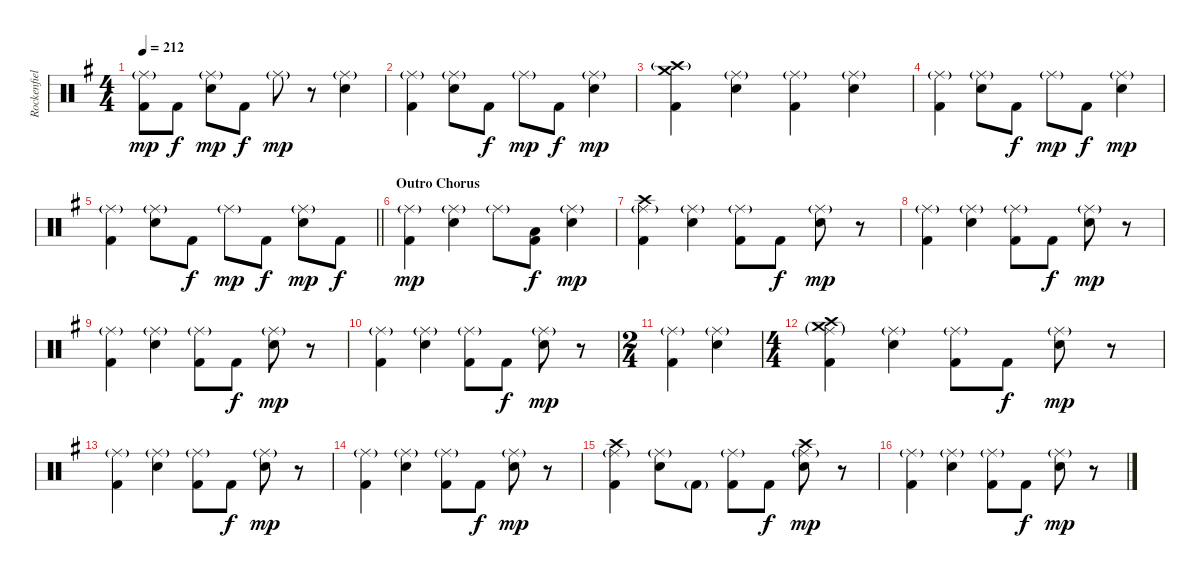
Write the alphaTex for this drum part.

\track ("Rockenfield" "Rockenfiel") {instrument percussion}
\staff {score}
\articulation defaults
\ts (4 4)
\tempo 212
\clef neutral
\ks g
("Ride (middle)"{g} "Kick (hit) 2").8{dy mp} "Kick (hit) 2".8{dy f} ("Ride (middle)"{g} "Electric Snare (hit)").8{dy mp} "Kick (hit) 2".8{dy f} "Ride (middle)"{g}.8{dy mp} r.8 ("Ride (middle)"{g} "Electric Snare (hit)").4 |
("Ride (middle)"{g} "Kick (hit) 2").4 ("Ride (middle)"{g} "Electric Snare (hit)").8 "Kick (hit) 2".8{dy f} "Ride (middle)"{g}.8{dy mp} "Kick (hit) 2".8{dy f} ("Ride (middle)"{g} "Electric Snare (hit)").4{dy mp} |
("Crash high (hit)"{g} "Crash medium (hit)" "Kick (hit) 2").4 ("Ride (middle)"{g} "Electric Snare (hit)").4 ("Ride (middle)"{g} "Kick (hit) 2").4 ("Ride (middle)"{g} "Electric Snare (hit)").4 |
("Ride (middle)"{g} "Kick (hit) 2").4 ("Ride (middle)"{g} "Electric Snare (hit)").8 "Kick (hit) 2".8{dy f} "Ride (middle)"{g}.8{dy mp} "Kick (hit) 2".8{dy f} ("Ride (middle)"{g} "Electric Snare (hit)").4{dy mp} |
\barLineRight lightlight
("Ride (middle)"{g} "Kick (hit) 2").4 ("Ride (middle)"{g} "Electric Snare (hit)").8 "Kick (hit) 2".8{dy f} "Ride (middle)"{g}.8{dy mp} "Kick (hit) 2".8{dy f} ("Ride (middle)"{g} "Electric Snare (hit)").8{dy mp} "Kick (hit) 2".8{dy f} |
\section ("" "Outro Chorus")
("Ride (middle)"{g} "Kick (hit) 2").4{dy mp} ("Ride (middle)"{g} "Electric Snare (hit)").4 "Ride (middle)"{g}.8 ("Low Floor Tom (hit)" "Kick (hit) 2").8{dy f} ("Ride (middle)"{g} "Electric Snare (hit)").4{dy mp} |
("Ride (middle)"{g} "Crash high (hit)" "Kick (hit) 2").4 ("Ride (middle)"{g} "Electric Snare (hit)").4 ("Ride (middle)"{g} "Kick (hit) 2").8 "Kick (hit) 2".8{dy f} ("Ride (middle)"{g} "Electric Snare (hit)").8{dy mp} r.8 |
("Ride (middle)"{g} "Kick (hit) 2").4 ("Ride (middle)"{g} "Electric Snare (hit)").4 ("Ride (middle)"{g} "Kick (hit) 2").8 "Kick (hit) 2".8{dy f} ("Ride (middle)"{g} "Electric Snare (hit)").8{dy mp} r.8 |
("Ride (middle)"{g} "Kick (hit) 2").4 ("Ride (middle)"{g} "Electric Snare (hit)").4 ("Ride (middle)"{g} "Kick (hit) 2").8 "Kick (hit) 2".8{dy f} ("Ride (middle)"{g} "Electric Snare (hit)").8{dy mp} r.8 |
("Ride (middle)"{g} "Kick (hit) 2").4 ("Ride (middle)"{g} "Electric Snare (hit)").4 ("Ride (middle)"{g} "Kick (hit) 2").8 "Kick (hit) 2".8{dy f} ("Ride (middle)"{g} "Electric Snare (hit)").8{dy mp} r.8 |
\ts (2 4)
("Ride (middle)"{g} "Kick (hit) 2").4 ("Ride (middle)"{g} "Electric Snare (hit)").4 |
\ts (4 4)
("Ride (middle)"{g} "Crash high (hit)" "Crash medium (hit)"{g} "Kick (hit) 2").4 ("Ride (middle)"{g} "Electric Snare (hit)").4 ("Ride (middle)"{g} "Kick (hit) 2").8 "Kick (hit) 2".8{dy f} ("Ride (middle)"{g} "Electric Snare (hit)").8{dy mp} r.8 |
("Ride (middle)"{g} "Kick (hit) 2").4 ("Ride (middle)"{g} "Electric Snare (hit)").4 ("Ride (middle)"{g} "Kick (hit) 2").8 "Kick (hit) 2".8{dy f} ("Ride (middle)"{g} "Electric Snare (hit)").8{dy mp} r.8 |
("Ride (middle)"{g} "Kick (hit) 2").4 ("Ride (middle)"{g} "Electric Snare (hit)").4 ("Ride (middle)"{g} "Kick (hit) 2").8 "Kick (hit) 2".8{dy f} ("Ride (middle)"{g} "Electric Snare (hit)").8{dy mp} r.8 |
("Ride (middle)"{g} "Crash high (hit)" "Kick (hit) 2").4 ("Ride (middle)"{g} "Electric Snare (hit)").8 "Kick (hit) 2"{g}.8 ("Ride (middle)"{g} "Kick (hit) 2").8 "Kick (hit) 2".8{dy f} ("Ride (middle)"{g} "Crash high (hit)" "Electric Snare (hit)").8{dy mp} r.8 |
("Ride (middle)"{g} "Kick (hit) 2").4 ("Ride (middle)"{g} "Electric Snare (hit)").4 ("Ride (middle)"{g} "Kick (hit) 2").8 "Kick (hit) 2".8{dy f} ("Ride (middle)"{g} "Electric Snare (hit)").8{dy mp} r.8
